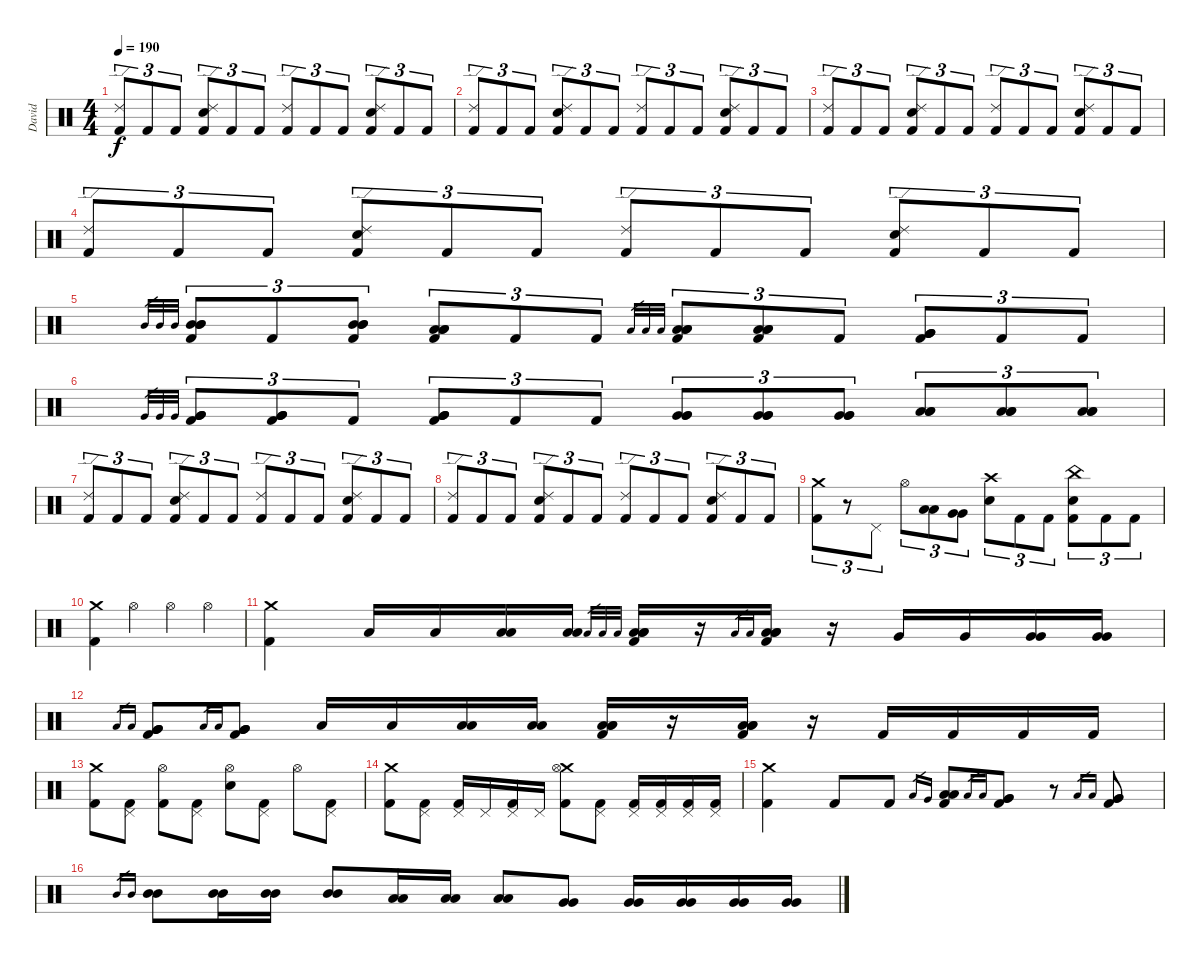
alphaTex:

\track ("David" "David") {instrument percussion}
\staff {score}
\articulation defaults
\ts (4 4)
\tempo 190
\clef neutral
\ks c
("Ride (edge) 2" "Kick (hit) 2").8{tu (3 2) dy f} "Kick (hit) 2".8{tu (3 2)} "Kick (hit) 2".8{tu (3 2)} ("Ride (edge) 2" "Electric Snare (hit)" "Kick (hit) 2").8{tu (3 2)} "Kick (hit) 2".8{tu (3 2)} "Kick (hit) 2".8{tu (3 2)} ("Ride (edge) 2" "Kick (hit) 2").8{tu (3 2)} "Kick (hit) 2".8{tu (3 2)} "Kick (hit) 2".8{tu (3 2)} ("Ride (edge) 2" "Electric Snare (hit)" "Kick (hit) 2").8{tu (3 2)} "Kick (hit) 2".8{tu (3 2)} "Kick (hit) 2".8{tu (3 2)} |
("Ride (edge) 2" "Kick (hit) 2").8{tu (3 2)} "Kick (hit) 2".8{tu (3 2)} "Kick (hit) 2".8{tu (3 2)} ("Ride (edge) 2" "Electric Snare (hit)" "Kick (hit) 2").8{tu (3 2)} "Kick (hit) 2".8{tu (3 2)} "Kick (hit) 2".8{tu (3 2)} ("Ride (edge) 2" "Kick (hit) 2").8{tu (3 2)} "Kick (hit) 2".8{tu (3 2)} "Kick (hit) 2".8{tu (3 2)} ("Ride (edge) 2" "Electric Snare (hit)" "Kick (hit) 2").8{tu (3 2)} "Kick (hit) 2".8{tu (3 2)} "Kick (hit) 2".8{tu (3 2)} |
("Ride (edge) 2" "Kick (hit) 2").8{tu (3 2)} "Kick (hit) 2".8{tu (3 2)} "Kick (hit) 2".8{tu (3 2)} ("Ride (edge) 2" "Electric Snare (hit)" "Kick (hit) 2").8{tu (3 2)} "Kick (hit) 2".8{tu (3 2)} "Kick (hit) 2".8{tu (3 2)} ("Ride (edge) 2" "Kick (hit) 2").8{tu (3 2)} "Kick (hit) 2".8{tu (3 2)} "Kick (hit) 2".8{tu (3 2)} ("Ride (edge) 2" "Electric Snare (hit)" "Kick (hit) 2").8{tu (3 2)} "Kick (hit) 2".8{tu (3 2)} "Kick (hit) 2".8{tu (3 2)} |
("Ride (edge) 2" "Kick (hit) 2").8{tu (3 2)} "Kick (hit) 2".8{tu (3 2)} "Kick (hit) 2".8{tu (3 2)} ("Ride (edge) 2" "Electric Snare (hit)" "Kick (hit) 2").8{tu (3 2)} "Kick (hit) 2".8{tu (3 2)} "Kick (hit) 2".8{tu (3 2)} ("Ride (edge) 2" "Kick (hit) 2").8{tu (3 2)} "Kick (hit) 2".8{tu (3 2)} "Kick (hit) 2".8{tu (3 2)} ("Ride (edge) 2" "Electric Snare (hit)" "Kick (hit) 2").8{tu (3 2)} "Kick (hit) 2".8{tu (3 2)} "Kick (hit) 2".8{tu (3 2)} |
"Mid Tom (hit)".32{gr} "Mid Tom (hit)".32{gr} "Mid Tom (hit)".32{gr} ("Mid Tom (hit)" "Mid Tom (hit)" "Mid Tom (hit)" "Kick (hit) 2").8{tu (3 2)} "Kick (hit) 2".8{tu (3 2)} ("Mid Tom (hit)" "Mid Tom (hit)" "Mid Tom (hit)" "Kick (hit) 2").8{tu (3 2)} ("Low Tom (hit)" "Low Tom (hit)" "Low Tom (hit)" "Kick (hit) 2").8{tu (3 2)} "Kick (hit) 2".8{tu (3 2)} "Kick (hit) 2".8{tu (3 2)} "Low Tom (hit)".32{gr} "Low Tom (hit)".32{gr} "Low Tom (hit)".32{gr} ("Low Tom (hit)" "Low Tom (hit)" "Low Tom (hit)" "Kick (hit) 2").8{tu (3 2)} ("Low Tom (hit)" "Low Tom (hit)" "Low Tom (hit)" "Kick (hit) 2").8{tu (3 2)} "Kick (hit) 2".8{tu (3 2)} ("Very Low Tom (hit)" "Very Low Tom (hit)" "Very Low Tom (hit)" "Kick (hit) 2").8{tu (3 2)} "Kick (hit) 2".8{tu (3 2)} "Kick (hit) 2".8{tu (3 2)} |
"Very Low Tom (hit)".32{gr} "Very Low Tom (hit)".32{gr} "Very Low Tom (hit)".32{gr} ("Very Low Tom (hit)" "Very Low Tom (hit)" "Very Low Tom (hit)" "Kick (hit) 2").8{tu (3 2)} ("Very Low Tom (hit)" "Very Low Tom (hit)" "Very Low Tom (hit)" "Kick (hit) 2").8{tu (3 2)} "Kick (hit) 2".8{tu (3 2)} ("Very Low Tom (hit)" "Very Low Tom (hit)" "Very Low Tom (hit)" "Kick (hit) 2").8{tu (3 2)} "Kick (hit) 2".8{tu (3 2)} "Kick (hit) 2".8{tu (3 2)} ("Very Low Tom (hit)" "Very Low Tom (hit)" "Very Low Tom (hit)").8{tu (3 2)} ("Very Low Tom (hit)" "Very Low Tom (hit)" "Very Low Tom (hit)").8{tu (3 2)} ("Very Low Tom (hit)" "Very Low Tom (hit)" "Very Low Tom (hit)").8{tu (3 2)} ("Low Floor Tom (hit)" "Low Floor Tom (hit)" "Low Floor Tom (hit)").8{tu (3 2)} ("Low Floor Tom (hit)" "Low Floor Tom (hit)" "Low Floor Tom (hit)").8{tu (3 2)} ("Low Floor Tom (hit)" "Low Floor Tom (hit)" "Low Floor Tom (hit)").8{tu (3 2)} |
("Ride (edge) 2" "Kick (hit) 2").8{tu (3 2)} "Kick (hit) 2".8{tu (3 2)} "Kick (hit) 2".8{tu (3 2)} ("Ride (edge) 2" "Electric Snare (hit)" "Kick (hit) 2").8{tu (3 2)} "Kick (hit) 2".8{tu (3 2)} "Kick (hit) 2".8{tu (3 2)} ("Ride (edge) 2" "Kick (hit) 2").8{tu (3 2)} "Kick (hit) 2".8{tu (3 2)} "Kick (hit) 2".8{tu (3 2)} ("Ride (edge) 2" "Electric Snare (hit)" "Kick (hit) 2").8{tu (3 2)} "Kick (hit) 2".8{tu (3 2)} "Kick (hit) 2".8{tu (3 2)} |
("Ride (edge) 2" "Kick (hit) 2").8{tu (3 2)} "Kick (hit) 2".8{tu (3 2)} "Kick (hit) 2".8{tu (3 2)} ("Ride (edge) 2" "Electric Snare (hit)" "Kick (hit) 2").8{tu (3 2)} "Kick (hit) 2".8{tu (3 2)} "Kick (hit) 2".8{tu (3 2)} ("Ride (edge) 2" "Kick (hit) 2").8{tu (3 2)} "Kick (hit) 2".8{tu (3 2)} "Kick (hit) 2".8{tu (3 2)} ("Ride (edge) 2" "Electric Snare (hit)" "Kick (hit) 2").8{tu (3 2)} "Kick (hit) 2".8{tu (3 2)} "Kick (hit) 2".8{tu (3 2)} |
("Crash medium (hit)" "Kick (hit) 2").8{tu (3 2)} r.8{tu (3 2)} "Pedal Hi-Hat (hit)".8{tu (3 2)} "Hi-Hat (open)".8{tu (3 2)} ("Low Tom (hit)" "Low Tom (hit)").8{tu (3 2)} ("Very Low Tom (hit)" "Very Low Tom (hit)").8{tu (3 2)} ("Crash high (hit)" "Electric Snare (hit)").8{tu (3 2)} "Kick (hit) 2".8{tu (3 2)} "Kick (hit) 2".8{tu (3 2)} ("China (hit)" "Electric Snare (hit)" "Kick (hit) 2").8{tu (3 2)} "Kick (hit) 2".8{tu (3 2)} "Kick (hit) 2".8{tu (3 2)} |
("Crash medium (hit)" "Kick (hit) 2").4 "Hi-Hat (open)".4 "Hi-Hat (open)".4 "Hi-Hat (open)".4 |
("Crash medium (hit)" "Kick (hit) 2").4 "Low Tom (hit)".16 "Low Tom (hit)".16 ("Low Tom (hit)" "Low Tom (hit)").16 ("Low Tom (hit)" "Low Tom (hit)").16 "Low Tom (hit)".32{gr} "Low Tom (hit)".32{gr} "Low Tom (hit)".32{gr} ("Low Tom (hit)" "Low Tom (hit)" "Low Tom (hit)" "Kick (hit) 2").16 r.16 "Low Tom (hit)".16{gr} "Low Tom (hit)".16{gr} ("Low Tom (hit)" "Low Tom (hit)" "Low Tom (hit)" "Kick (hit) 2").16 r.16 "Very Low Tom (hit)".16 "Very Low Tom (hit)".16 ("Very Low Tom (hit)" "Very Low Tom (hit)").16 ("Very Low Tom (hit)" "Very Low Tom (hit)").16 |
"Low Tom (hit)".16{gr} "Low Tom (hit)".16{gr} ("Very Low Tom (hit)" "Very Low Tom (hit)" "Very Low Tom (hit)" "Kick (hit) 2").8 "Low Tom (hit)".16{gr} "Low Tom (hit)".16{gr} ("Very Low Tom (hit)" "Very Low Tom (hit)" "Very Low Tom (hit)" "Kick (hit) 2").8 "Low Floor Tom (hit)".16 "Low Floor Tom (hit)".16 ("Low Floor Tom (hit)" "Low Floor Tom (hit)").16 ("Low Floor Tom (hit)" "Low Floor Tom (hit)").16 ("Low Floor Tom (hit)" "Low Floor Tom (hit)" "Low Floor Tom (hit)" "Kick (hit) 2").16 r.16 ("Low Floor Tom (hit)" "Low Floor Tom (hit)" "Low Floor Tom (hit)" "Kick (hit) 2").16 r.16 "Kick (hit) 2".16 "Kick (hit) 2".16 "Kick (hit) 2".16 "Kick (hit) 2".16 |
("Crash medium (hit)" "Kick (hit) 2").8 ("Pedal Hi-Hat (hit)" "Kick (hit) 2").8 ("Hi-Hat (open)" "Kick (hit) 2").8 ("Pedal Hi-Hat (hit)" "Kick (hit) 2").8 ("Hi-Hat (open)" "Electric Snare (hit)").8 ("Pedal Hi-Hat (hit)" "Kick (hit) 2").8 "Hi-Hat (open)".8 ("Pedal Hi-Hat (hit)" "Kick (hit) 2").8 |
("Crash medium (hit)" "Kick (hit) 2").8 ("Pedal Hi-Hat (hit)" "Kick (hit) 2").8 ("Pedal Hi-Hat (hit)" "Kick (hit) 2").16 "Pedal Hi-Hat (hit)".16 ("Pedal Hi-Hat (hit)" "Kick (hit) 2").16 "Pedal Hi-Hat (hit)".16 ("Crash medium (hit)" "Hi-Hat (open)" "Kick (hit) 2").8 ("Pedal Hi-Hat (hit)" "Kick (hit) 2").8 ("Pedal Hi-Hat (hit)" "Kick (hit) 2").16 ("Pedal Hi-Hat (hit)" "Kick (hit) 2").16 ("Pedal Hi-Hat (hit)" "Kick (hit) 2").16 ("Pedal Hi-Hat (hit)" "Kick (hit) 2").16 |
("Crash medium (hit)" "Kick (hit) 2").4 "Kick (hit) 2".8 "Kick (hit) 2".8 "Low Floor Tom (hit)".16{gr} "Very Low Tom (hit)".16{gr} ("Low Tom (hit)" "Low Tom (hit)" "Kick (hit) 2").8 "Low Floor Tom (hit)".16{gr} "Low Floor Tom (hit)".16{gr} ("Very Low Tom (hit)" "Very Low Tom (hit)" "Kick (hit) 2").8 r.8 "Low Floor Tom (hit)".16{gr} "Low Floor Tom (hit)".16{gr} ("Very Low Tom (hit)" "Very Low Tom (hit)" "Kick (hit) 2").8 |
"Mid Tom (hit)".16{gr} "Mid Tom (hit)".16{gr} ("Mid Tom (hit)" "Mid Tom (hit)").8 ("Mid Tom (hit)" "Mid Tom (hit)").16 ("Mid Tom (hit)" "Mid Tom (hit)").16 ("Mid Tom (hit)" "Mid Tom (hit)").8 ("Low Tom (hit)" "Low Tom (hit)").16 ("Low Tom (hit)" "Low Tom (hit)").16 ("Low Tom (hit)" "Low Tom (hit)").8 ("Very Low Tom (hit)" "Very Low Tom (hit)").8 ("Very Low Tom (hit)" "Very Low Tom (hit)").16 ("Very Low Tom (hit)" "Very Low Tom (hit)").16 ("Very Low Tom (hit)" "Very Low Tom (hit)").16 ("Very Low Tom (hit)" "Very Low Tom (hit)").16
